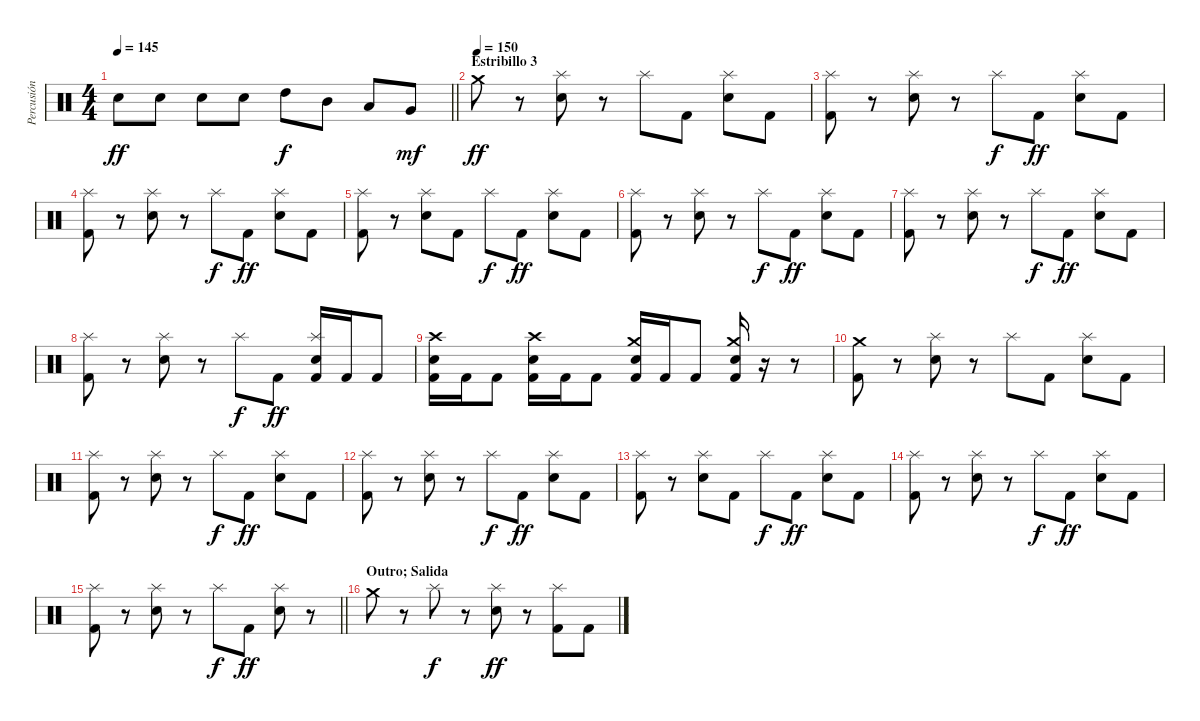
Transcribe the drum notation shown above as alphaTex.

\track ("Percusión" "Percusión") {instrument percussion}
\staff {score}
\articulation defaults
\ts (4 4)
\tempo 145
\clef neutral
\barLineRight lightlight
\ks c "Electric Snare (hit)".8{dy ff} "Electric Snare (hit)".8 "Electric Snare (hit)".8 "Electric Snare (hit)".8 "High Tom (hit)".8{dy f} "Mid Tom (hit)".8 "Low Tom (hit)".8 "Very Low Tom (hit)".8{dy mf}
|
\section ("" "Estribillo 3")
\tempo (150)
"Crash medium (hit)".8{dy ff} r.8 ("Splash (hit)" "Electric Snare (hit)").8 r.8 "Splash (hit)".8 "Kick (hit) 2".8 ("Splash (hit)" "Electric Snare (hit)").8 "Kick (hit) 2".8 |
("Splash (hit)" "Kick (hit) 2").8 r.8 ("Splash (hit)" "Electric Snare (hit)").8 r.8 "Splash (hit)".8{dy f} "Kick (hit) 2".8{dy ff} ("Splash (hit)" "Electric Snare (hit)").8 "Kick (hit) 2".8 |
("Splash (hit)" "Kick (hit) 2").8 r.8 ("Splash (hit)" "Electric Snare (hit)").8 r.8 "Splash (hit)".8{dy f} "Kick (hit) 2".8{dy ff} ("Splash (hit)" "Electric Snare (hit)").8 "Kick (hit) 2".8 |
("Splash (hit)" "Kick (hit) 2").8 r.8 ("Splash (hit)" "Electric Snare (hit)").8 "Kick (hit) 2".8 "Splash (hit)".8{dy f} "Kick (hit) 2".8{dy ff} ("Splash (hit)" "Electric Snare (hit)").8 "Kick (hit) 2".8 |
("Splash (hit)" "Kick (hit) 2").8 r.8 ("Splash (hit)" "Electric Snare (hit)").8 r.8 "Splash (hit)".8{dy f} "Kick (hit) 2".8{dy ff} ("Splash (hit)" "Electric Snare (hit)").8 "Kick (hit) 2".8 |
("Splash (hit)" "Kick (hit) 2").8 r.8 ("Splash (hit)" "Electric Snare (hit)").8 r.8 "Splash (hit)".8{dy f} "Kick (hit) 2".8{dy ff} ("Splash (hit)" "Electric Snare (hit)").8 "Kick (hit) 2".8 |
("Splash (hit)" "Kick (hit) 2").8 r.8 ("Splash (hit)" "Electric Snare (hit)").8 r.8 "Splash (hit)".8{dy f} "Kick (hit) 2".8{dy ff} ("Splash (hit)" "Electric Snare (hit)" "Kick (hit) 2").16 "Kick (hit) 2".16 "Kick (hit) 2".8 |
("Crash high (hit)" "Electric Snare (hit)" "Kick (hit) 2").16 "Kick (hit) 2".16 "Kick (hit) 2".8 ("Crash high (hit)" "Electric Snare (hit)" "Kick (hit) 2").16 "Kick (hit) 2".16 "Kick (hit) 2".8 ("Crash medium (hit)" "Electric Snare (hit)" "Kick (hit) 2").16 "Kick (hit) 2".16 "Kick (hit) 2".8 ("Crash medium (hit)" "Electric Snare (hit)" "Kick (hit) 2").16 r.16 r.8 |
("Crash medium (hit)" "Kick (hit) 2").8 r.8 ("Splash (hit)" "Electric Snare (hit)").8 r.8 "Splash (hit)".8 "Kick (hit) 2".8 ("Splash (hit)" "Electric Snare (hit)").8 "Kick (hit) 2".8 |
("Splash (hit)" "Kick (hit) 2").8 r.8 ("Splash (hit)" "Electric Snare (hit)").8 r.8 "Splash (hit)".8{dy f} "Kick (hit) 2".8{dy ff} ("Splash (hit)" "Electric Snare (hit)").8 "Kick (hit) 2".8 |
("Splash (hit)" "Kick (hit) 2").8 r.8 ("Splash (hit)" "Electric Snare (hit)").8 r.8 "Splash (hit)".8{dy f} "Kick (hit) 2".8{dy ff} ("Splash (hit)" "Electric Snare (hit)").8 "Kick (hit) 2".8 |
("Splash (hit)" "Kick (hit) 2").8 r.8 ("Splash (hit)" "Electric Snare (hit)").8 "Kick (hit) 2".8 "Splash (hit)".8{dy f} "Kick (hit) 2".8{dy ff} ("Splash (hit)" "Electric Snare (hit)").8 "Kick (hit) 2".8 |
("Splash (hit)" "Kick (hit) 2").8 r.8 ("Splash (hit)" "Electric Snare (hit)").8 r.8 "Splash (hit)".8{dy f} "Kick (hit) 2".8{dy ff} ("Splash (hit)" "Electric Snare (hit)").8 "Kick (hit) 2".8 |
\barLineRight lightlight
("Splash (hit)" "Kick (hit) 2").8 r.8 ("Splash (hit)" "Electric Snare (hit)").8 r.8 "Splash (hit)".8{dy f} "Kick (hit) 2".8{dy ff} ("Splash (hit)" "Electric Snare (hit)").8 r.8 |
\section ("" "Outro; Salida")
"Crash medium (hit)".8 r.8 "Splash (hit)".8{dy f} r.8 ("Splash (hit)" "Electric Snare (hit)").8{dy ff} r.8 ("Splash (hit)" "Kick (hit) 2").8 "Kick (hit) 2".8
